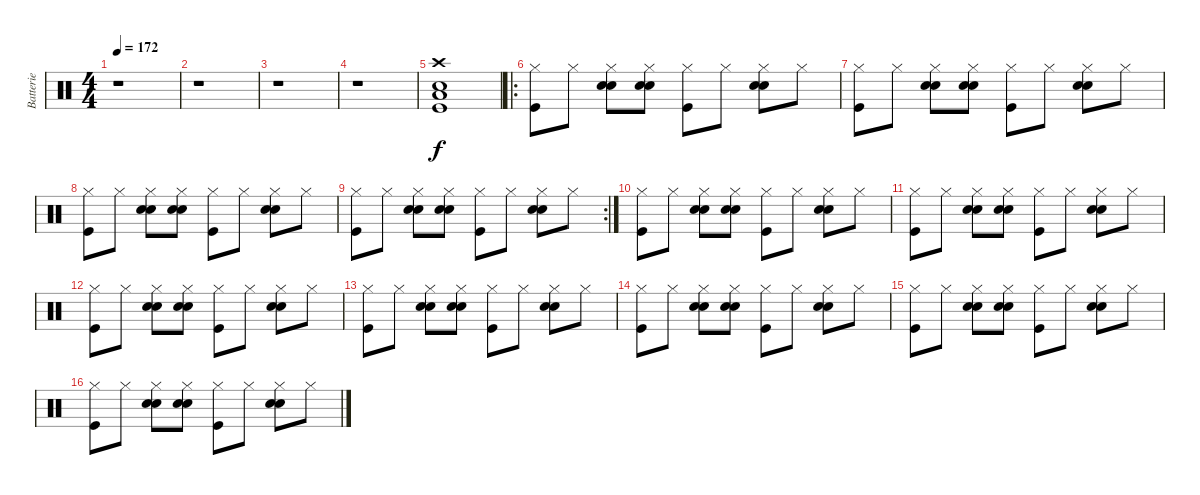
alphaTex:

\track ("Batterie" "Batterie") {instrument percussion}
\staff {score}
\articulation defaults
\ts (4 4)
\tempo 172
\clef neutral
\ks c
r.1{dy f} |
r.1 |
r.1 |
r.1 |
("Crash high (hit)" "Snare (hit) 2" "Low Tom (hit)" "Kick (hit)").1 |
\ro
("Hi-Hat (closed)" "Kick (hit)").8 "Hi-Hat (closed)".8 ("Electric Snare (hit)" "Hi-Hat (closed)" "Snare (hit) 2").8 ("Electric Snare (hit)" "Hi-Hat (closed)" "Snare (hit) 2").8 ("Hi-Hat (closed)" "Kick (hit)").8 "Hi-Hat (closed)".8 ("Electric Snare (hit)" "Hi-Hat (closed)" "Snare (hit) 2").8 "Hi-Hat (closed)".8 |
("Hi-Hat (closed)" "Kick (hit)").8 "Hi-Hat (closed)".8 ("Electric Snare (hit)" "Hi-Hat (closed)" "Snare (hit) 2").8 ("Electric Snare (hit)" "Hi-Hat (closed)" "Snare (hit) 2").8 ("Hi-Hat (closed)" "Kick (hit)").8 "Hi-Hat (closed)".8 ("Electric Snare (hit)" "Hi-Hat (closed)" "Snare (hit) 2").8 "Hi-Hat (closed)".8 |
("Hi-Hat (closed)" "Kick (hit)").8 "Hi-Hat (closed)".8 ("Electric Snare (hit)" "Hi-Hat (closed)" "Snare (hit) 2").8 ("Electric Snare (hit)" "Hi-Hat (closed)" "Snare (hit) 2").8 ("Hi-Hat (closed)" "Kick (hit)").8 "Hi-Hat (closed)".8 ("Electric Snare (hit)" "Hi-Hat (closed)" "Snare (hit) 2").8 "Hi-Hat (closed)".8 |
\rc 2
("Hi-Hat (closed)" "Kick (hit)").8 "Hi-Hat (closed)".8 ("Electric Snare (hit)" "Hi-Hat (closed)" "Snare (hit) 2").8 ("Electric Snare (hit)" "Hi-Hat (closed)" "Snare (hit) 2").8 ("Hi-Hat (closed)" "Kick (hit)").8 "Hi-Hat (closed)".8 ("Electric Snare (hit)" "Hi-Hat (closed)" "Snare (hit) 2").8 "Hi-Hat (closed)".8 |
("Hi-Hat (closed)" "Kick (hit)").8 "Hi-Hat (closed)".8 ("Electric Snare (hit)" "Hi-Hat (closed)" "Snare (hit) 2").8 ("Electric Snare (hit)" "Hi-Hat (closed)" "Snare (hit) 2").8 ("Hi-Hat (closed)" "Kick (hit)").8 "Hi-Hat (closed)".8 ("Electric Snare (hit)" "Hi-Hat (closed)" "Snare (hit) 2").8 "Hi-Hat (closed)".8 |
("Hi-Hat (closed)" "Kick (hit)").8 "Hi-Hat (closed)".8 ("Electric Snare (hit)" "Hi-Hat (closed)" "Snare (hit) 2").8 ("Electric Snare (hit)" "Hi-Hat (closed)" "Snare (hit) 2").8 ("Hi-Hat (closed)" "Kick (hit)").8 "Hi-Hat (closed)".8 ("Electric Snare (hit)" "Hi-Hat (closed)" "Snare (hit) 2").8 "Hi-Hat (closed)".8 |
("Hi-Hat (closed)" "Kick (hit)").8 "Hi-Hat (closed)".8 ("Electric Snare (hit)" "Hi-Hat (closed)" "Snare (hit) 2").8 ("Electric Snare (hit)" "Hi-Hat (closed)" "Snare (hit) 2").8 ("Hi-Hat (closed)" "Kick (hit)").8 "Hi-Hat (closed)".8 ("Electric Snare (hit)" "Hi-Hat (closed)" "Snare (hit) 2").8 "Hi-Hat (closed)".8 |
("Hi-Hat (closed)" "Kick (hit)").8 "Hi-Hat (closed)".8 ("Electric Snare (hit)" "Hi-Hat (closed)" "Snare (hit) 2").8 ("Electric Snare (hit)" "Hi-Hat (closed)" "Snare (hit) 2").8 ("Hi-Hat (closed)" "Kick (hit)").8 "Hi-Hat (closed)".8 ("Electric Snare (hit)" "Hi-Hat (closed)" "Snare (hit) 2").8 "Hi-Hat (closed)".8 |
("Hi-Hat (closed)" "Kick (hit)").8 "Hi-Hat (closed)".8 ("Electric Snare (hit)" "Hi-Hat (closed)" "Snare (hit) 2").8 ("Electric Snare (hit)" "Hi-Hat (closed)" "Snare (hit) 2").8 ("Hi-Hat (closed)" "Kick (hit)").8 "Hi-Hat (closed)".8 ("Electric Snare (hit)" "Hi-Hat (closed)" "Snare (hit) 2").8 "Hi-Hat (closed)".8 |
("Hi-Hat (closed)" "Kick (hit)").8 "Hi-Hat (closed)".8 ("Electric Snare (hit)" "Hi-Hat (closed)" "Snare (hit) 2").8 ("Electric Snare (hit)" "Hi-Hat (closed)" "Snare (hit) 2").8 ("Hi-Hat (closed)" "Kick (hit)").8 "Hi-Hat (closed)".8 ("Electric Snare (hit)" "Hi-Hat (closed)" "Snare (hit) 2").8 "Hi-Hat (closed)".8 |
("Hi-Hat (closed)" "Kick (hit)").8 "Hi-Hat (closed)".8 ("Electric Snare (hit)" "Hi-Hat (closed)" "Snare (hit) 2").8 ("Electric Snare (hit)" "Hi-Hat (closed)" "Snare (hit) 2").8 ("Hi-Hat (closed)" "Kick (hit)").8 "Hi-Hat (closed)".8 ("Electric Snare (hit)" "Hi-Hat (closed)" "Snare (hit) 2").8 "Hi-Hat (closed)".8
